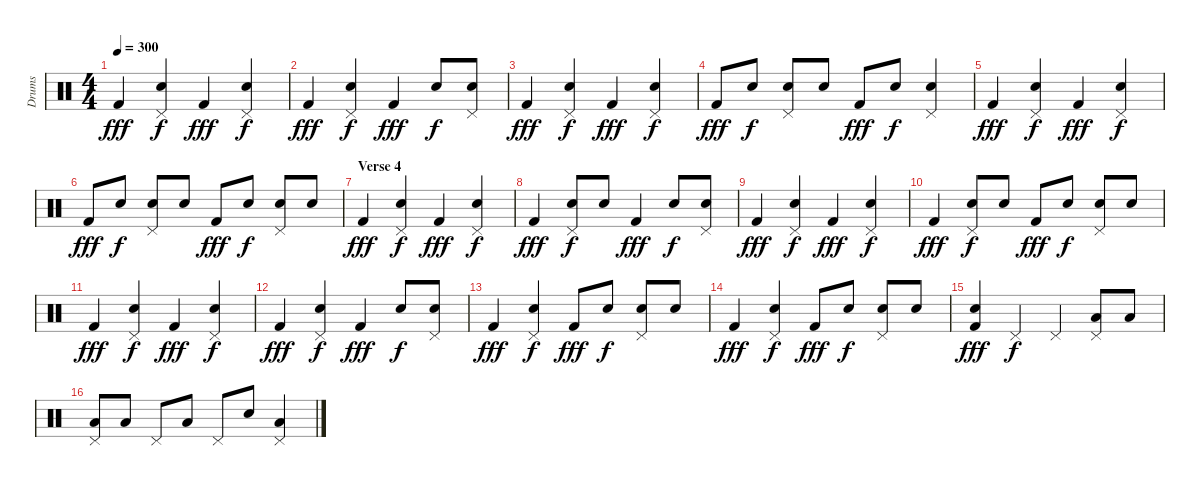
\track ("Drums" "Drums") {instrument percussion}
\staff {score}
\articulation defaults
\ts (4 4)
\tempo 300
\clef neutral
\ks c "Kick (hit) 2".4{dy fff}
("Snare (hit) 2" "Pedal Hi-Hat (hit)").4{dy f} "Kick (hit) 2".4{dy fff} ("Snare (hit) 2" "Pedal Hi-Hat (hit)").4{dy f} |
"Kick (hit) 2".4{dy fff} ("Snare (hit) 2" "Pedal Hi-Hat (hit)").4{dy f} "Kick (hit) 2".4{dy fff} "Snare (hit) 2".8{dy f} ("Snare (hit) 2" "Pedal Hi-Hat (hit)").8 |
"Kick (hit) 2".4{dy fff} ("Snare (hit) 2" "Pedal Hi-Hat (hit)").4{dy f} "Kick (hit) 2".4{dy fff} ("Snare (hit) 2" "Pedal Hi-Hat (hit)").4{dy f} |
"Kick (hit) 2".8{dy fff} "Snare (hit) 2".8{dy f} ("Snare (hit) 2" "Pedal Hi-Hat (hit)").8 "Snare (hit) 2".8 "Kick (hit) 2".8{dy fff} "Snare (hit) 2".8{dy f} ("Snare (hit) 2" "Pedal Hi-Hat (hit)").4 |
"Kick (hit) 2".4{dy fff} ("Snare (hit) 2" "Pedal Hi-Hat (hit)").4{dy f} "Kick (hit) 2".4{dy fff} ("Snare (hit) 2" "Pedal Hi-Hat (hit)").4{dy f} |
"Kick (hit) 2".8{dy fff} "Snare (hit) 2".8{dy f} ("Snare (hit) 2" "Pedal Hi-Hat (hit)").8 "Snare (hit) 2".8 "Kick (hit) 2".8{dy fff} "Snare (hit) 2".8{dy f} ("Snare (hit) 2" "Pedal Hi-Hat (hit)").8 "Snare (hit) 2".8 |
\section ("" "Verse 4")
"Kick (hit) 2".4{dy fff} ("Snare (hit) 2" "Pedal Hi-Hat (hit)").4{dy f} "Kick (hit) 2".4{dy fff} ("Snare (hit) 2" "Pedal Hi-Hat (hit)").4{dy f} |
"Kick (hit) 2".4{dy fff} ("Snare (hit) 2" "Pedal Hi-Hat (hit)").8{dy f} "Snare (hit) 2".8 "Kick (hit) 2".4{dy fff} "Snare (hit) 2".8{dy f} ("Snare (hit) 2" "Pedal Hi-Hat (hit)").8 |
"Kick (hit) 2".4{dy fff} ("Snare (hit) 2" "Pedal Hi-Hat (hit)").4{dy f} "Kick (hit) 2".4{dy fff} ("Snare (hit) 2" "Pedal Hi-Hat (hit)").4{dy f} |
"Kick (hit) 2".4{dy fff} ("Snare (hit) 2" "Pedal Hi-Hat (hit)").8{dy f} "Snare (hit) 2".8 "Kick (hit) 2".8{dy fff} "Snare (hit) 2".8{dy f} ("Snare (hit) 2" "Pedal Hi-Hat (hit)").8 "Snare (hit) 2".8 |
"Kick (hit) 2".4{dy fff} ("Snare (hit) 2" "Pedal Hi-Hat (hit)").4{dy f} "Kick (hit) 2".4{dy fff} ("Snare (hit) 2" "Pedal Hi-Hat (hit)").4{dy f} |
"Kick (hit) 2".4{dy fff} ("Snare (hit) 2" "Pedal Hi-Hat (hit)").4{dy f} "Kick (hit) 2".4{dy fff} "Snare (hit) 2".8{dy f} ("Snare (hit) 2" "Pedal Hi-Hat (hit)").8 |
"Kick (hit) 2".4{dy fff} ("Snare (hit) 2" "Pedal Hi-Hat (hit)").4{dy f} "Kick (hit) 2".8{dy fff} "Snare (hit) 2".8{dy f} ("Snare (hit) 2" "Pedal Hi-Hat (hit)").8 "Snare (hit) 2".8 |
"Kick (hit) 2".4{dy fff} ("Snare (hit) 2" "Pedal Hi-Hat (hit)").4{dy f} "Kick (hit) 2".8{dy fff} "Snare (hit) 2".8{dy f} ("Snare (hit) 2" "Pedal Hi-Hat (hit)").8 "Snare (hit) 2".8 |
("Snare (hit) 2" "Kick (hit) 2").4{dy fff} "Pedal Hi-Hat (hit)".4{dy f} "Pedal Hi-Hat (hit)".4 ("Low Tom (hit)" "Pedal Hi-Hat (hit)").8 "Low Tom (hit)".8 |
("Low Tom (hit)" "Pedal Hi-Hat (hit)").8 "Low Tom (hit)".8 "Pedal Hi-Hat (hit)".8 "Low Tom (hit)".8 "Pedal Hi-Hat (hit)".8 "Snare (hit) 2".8 ("Low Tom (hit)" "Pedal Hi-Hat (hit)").4
